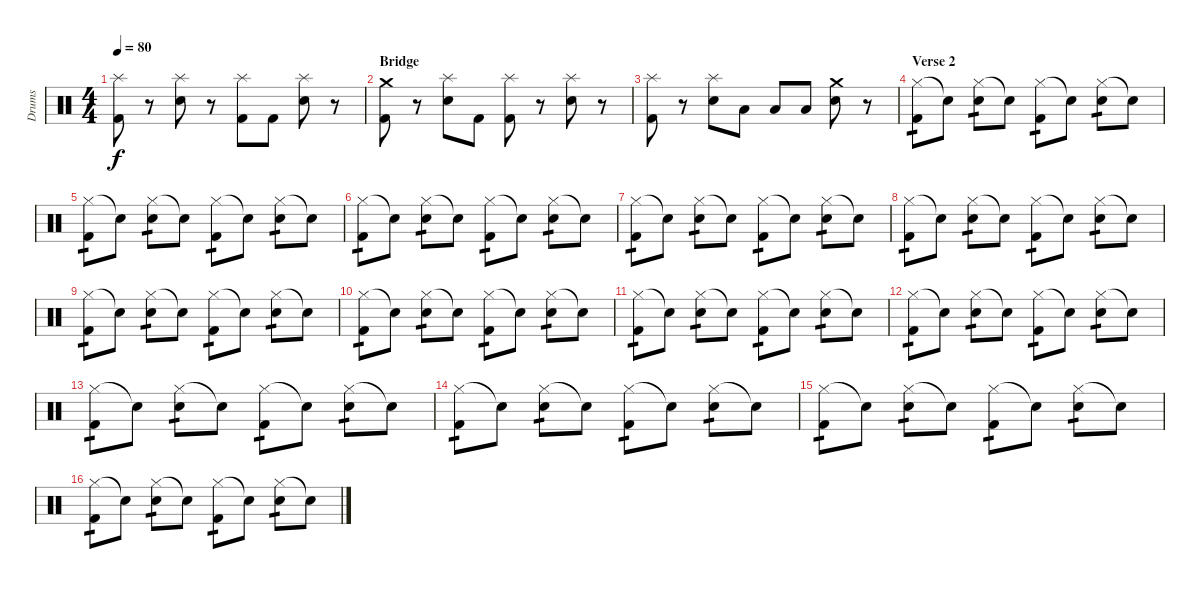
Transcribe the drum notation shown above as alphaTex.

\track ("Drums" "Drums") {instrument percussion}
\staff {score}
\articulation defaults
\ts (4 4)
\tempo 80
\clef neutral
\ks c
("Splash (hit)" "Kick (hit) 2").8{dy f} r.8 ("Splash (hit)" "Electric Snare (hit)").8 r.8 ("Splash (hit)" "Kick (hit) 2").8 "Kick (hit) 2".8 ("Splash (hit)" "Electric Snare (hit)").8 r.8 |
\section ("" "Bridge")
("Crash medium (hit)" "Kick (hit) 2").8 r.8 ("Splash (hit)" "Electric Snare (hit)").8 "Kick (hit) 2".8 ("Splash (hit)" "Kick (hit) 2").8 r.8 ("Splash (hit)" "Electric Snare (hit)").8 r.8 |
("Splash (hit)" "Kick (hit) 2").8 r.8 ("Splash (hit)" "Electric Snare (hit)").8 "Low Tom (hit)".8 "Low Tom (hit)".8 "Low Floor Tom (hit)".8 ("Crash medium (hit)" "Electric Snare (hit)").8 r.8 |
\section ("" "Verse 2")
("Hi-Hat (closed)" "Kick (hit) 2").8{tp 1} "Snare (hit)"{t}.8 ("Hi-Hat (closed)" "Electric Snare (hit)").8{tp 1} "Snare (hit)"{t}.8 ("Hi-Hat (closed)" "Kick (hit) 2").8{tp 1} "Snare (hit)"{t}.8 ("Hi-Hat (closed)" "Electric Snare (hit)").8{tp 1} "Snare (hit)"{t}.8 |
("Hi-Hat (closed)" "Kick (hit) 2").8{tp 1} "Snare (hit)"{t}.8 ("Hi-Hat (closed)" "Electric Snare (hit)").8{tp 1} "Snare (hit)"{t}.8 ("Hi-Hat (closed)" "Kick (hit) 2").8{tp 1} "Snare (hit)"{t}.8 ("Hi-Hat (closed)" "Electric Snare (hit)").8{tp 1} "Snare (hit)"{t}.8 |
("Hi-Hat (closed)" "Kick (hit) 2").8{tp 1} "Snare (hit)"{t}.8 ("Hi-Hat (closed)" "Electric Snare (hit)").8{tp 1} "Snare (hit)"{t}.8 ("Hi-Hat (closed)" "Kick (hit) 2").8{tp 1} "Snare (hit)"{t}.8 ("Hi-Hat (closed)" "Electric Snare (hit)").8{tp 1} "Snare (hit)"{t}.8 |
("Hi-Hat (closed)" "Kick (hit) 2").8{tp 1} "Snare (hit)"{t}.8 ("Hi-Hat (closed)" "Electric Snare (hit)").8{tp 1} "Snare (hit)"{t}.8 ("Hi-Hat (closed)" "Kick (hit) 2").8{tp 1} "Snare (hit)"{t}.8 ("Hi-Hat (closed)" "Electric Snare (hit)").8{tp 1} "Snare (hit)"{t}.8 |
("Hi-Hat (closed)" "Kick (hit) 2").8{tp 1} "Snare (hit)"{t}.8 ("Hi-Hat (closed)" "Electric Snare (hit)").8{tp 1} "Snare (hit)"{t}.8 ("Hi-Hat (closed)" "Kick (hit) 2").8{tp 1} "Snare (hit)"{t}.8 ("Hi-Hat (closed)" "Electric Snare (hit)").8{tp 1} "Snare (hit)"{t}.8 |
("Hi-Hat (closed)" "Kick (hit) 2").8{tp 1} "Snare (hit)"{t}.8 ("Hi-Hat (closed)" "Electric Snare (hit)").8{tp 1} "Snare (hit)"{t}.8 ("Hi-Hat (closed)" "Kick (hit) 2").8{tp 1} "Snare (hit)"{t}.8 ("Hi-Hat (closed)" "Electric Snare (hit)").8{tp 1} "Snare (hit)"{t}.8 |
("Hi-Hat (closed)" "Kick (hit) 2").8{tp 1} "Snare (hit)"{t}.8 ("Hi-Hat (closed)" "Electric Snare (hit)").8{tp 1} "Snare (hit)"{t}.8 ("Hi-Hat (closed)" "Kick (hit) 2").8{tp 1} "Snare (hit)"{t}.8 ("Hi-Hat (closed)" "Electric Snare (hit)").8{tp 1} "Snare (hit)"{t}.8 |
("Hi-Hat (closed)" "Kick (hit) 2").8{tp 1} "Snare (hit)"{t}.8 ("Hi-Hat (closed)" "Electric Snare (hit)").8{tp 1} "Snare (hit)"{t}.8 ("Hi-Hat (closed)" "Kick (hit) 2").8{tp 1} "Snare (hit)"{t}.8 ("Hi-Hat (closed)" "Electric Snare (hit)").8{tp 1} "Snare (hit)"{t}.8 |
("Hi-Hat (closed)" "Kick (hit) 2").8{tp 1} "Snare (hit)"{t}.8 ("Hi-Hat (closed)" "Electric Snare (hit)").8{tp 1} "Snare (hit)"{t}.8 ("Hi-Hat (closed)" "Kick (hit) 2").8{tp 1} "Snare (hit)"{t}.8 ("Hi-Hat (closed)" "Electric Snare (hit)").8{tp 1} "Snare (hit)"{t}.8 |
("Hi-Hat (closed)" "Kick (hit) 2").8{tp 1} "Snare (hit)"{t}.8 ("Hi-Hat (closed)" "Electric Snare (hit)").8{tp 1} "Snare (hit)"{t}.8 ("Hi-Hat (closed)" "Kick (hit) 2").8{tp 1} "Snare (hit)"{t}.8 ("Hi-Hat (closed)" "Electric Snare (hit)").8{tp 1} "Snare (hit)"{t}.8 |
("Hi-Hat (closed)" "Kick (hit) 2").8{tp 1} "Snare (hit)"{t}.8 ("Hi-Hat (closed)" "Electric Snare (hit)").8{tp 1} "Snare (hit)"{t}.8 ("Hi-Hat (closed)" "Kick (hit) 2").8{tp 1} "Snare (hit)"{t}.8 ("Hi-Hat (closed)" "Electric Snare (hit)").8{tp 1} "Snare (hit)"{t}.8 |
("Hi-Hat (closed)" "Kick (hit) 2").8{tp 1} "Snare (hit)"{t}.8 ("Hi-Hat (closed)" "Electric Snare (hit)").8{tp 1} "Snare (hit)"{t}.8 ("Hi-Hat (closed)" "Kick (hit) 2").8{tp 1} "Snare (hit)"{t}.8 ("Hi-Hat (closed)" "Electric Snare (hit)").8{tp 1} "Snare (hit)"{t}.8 |
("Hi-Hat (closed)" "Kick (hit) 2").8{tp 1} "Snare (hit)"{t}.8 ("Hi-Hat (closed)" "Electric Snare (hit)").8{tp 1} "Snare (hit)"{t}.8 ("Hi-Hat (closed)" "Kick (hit) 2").8{tp 1} "Snare (hit)"{t}.8 ("Hi-Hat (closed)" "Electric Snare (hit)").8{tp 1} "Snare (hit)"{t}.8
